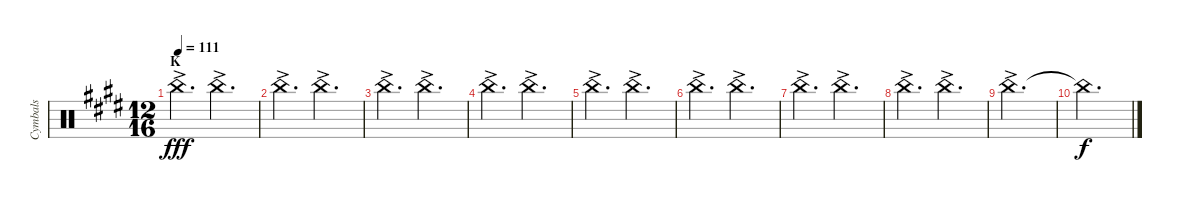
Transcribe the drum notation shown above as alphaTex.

\track ("Cymbals" "Cymbals") {instrument percussion}
\staff {score}
\articulation defaults
\ts (12 16)
\section ("" "K")
\tempo 111
\clef neutral
\ks e "China (hit)"{ac}.4{d dy fff} "China (hit)"{ac}.4{d}
|
"China (hit)"{ac}.4{d} "China (hit)"{ac}.4{d} |
"China (hit)"{ac}.4{d} "China (hit)"{ac}.4{d} |
"China (hit)"{ac}.4{d} "China (hit)"{ac}.4{d} |
"China (hit)"{ac}.4{d} "China (hit)"{ac}.4{d} |
"China (hit)"{ac}.4{d} "China (hit)"{ac}.4{d} |
"China (hit)"{ac}.4{d} "China (hit)"{ac}.4{d} |
"China (hit)"{ac}.4{d} "China (hit)"{ac}.4{d} |
"China (hit)"{ac}.2{d} |
"China (hit)"{t}.2{d dy f}
